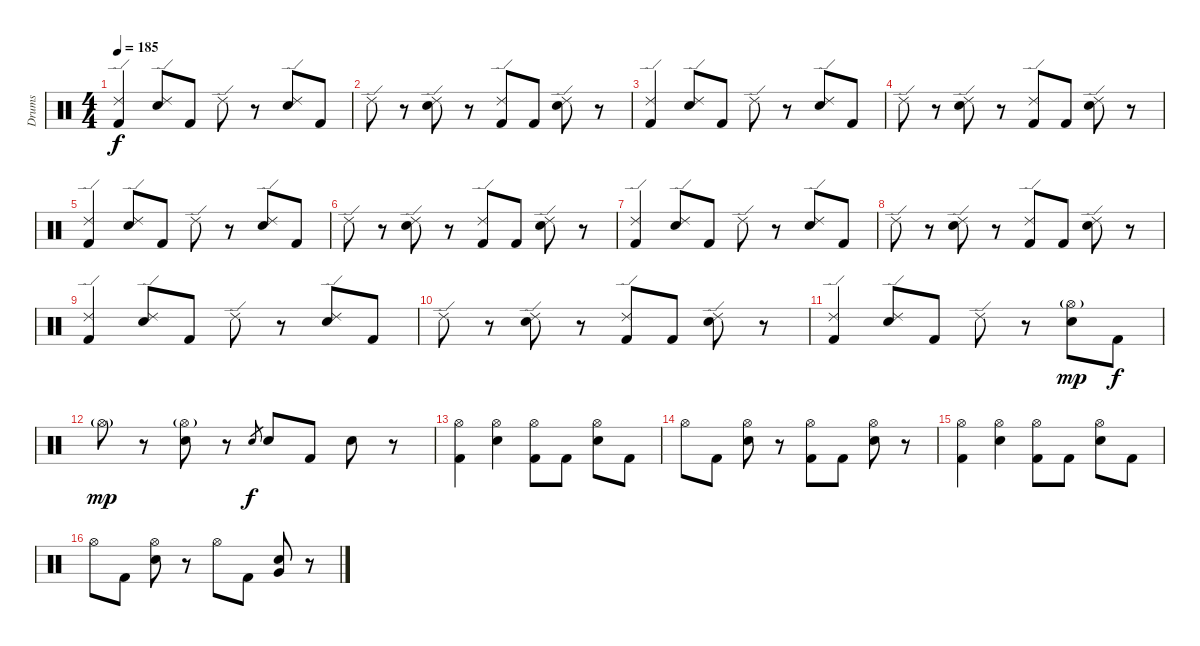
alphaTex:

\track ("Drums" "Drums") {instrument percussion}
\staff {score}
\articulation defaults
\ts (4 4)
\tempo 185
\clef neutral
\ks c
("Ride (edge) 2" "Kick (hit) 2").4{dy f} ("Ride (edge) 2" "Snare (hit) 2").8 "Kick (hit) 2".8 "Ride (edge) 2".8 r.8 ("Ride (edge) 2" "Snare (hit) 2").8 "Kick (hit) 2".8 |
"Ride (edge) 2".8 r.8 ("Ride (edge) 2" "Snare (hit) 2").8 r.8 ("Ride (edge) 2" "Kick (hit) 2").8 "Kick (hit) 2".8 ("Ride (edge) 2" "Snare (hit) 2").8 r.8 |
("Ride (edge) 2" "Kick (hit) 2").4 ("Ride (edge) 2" "Snare (hit) 2").8 "Kick (hit) 2".8 "Ride (edge) 2".8 r.8 ("Ride (edge) 2" "Snare (hit) 2").8 "Kick (hit) 2".8 |
"Ride (edge) 2".8 r.8 ("Ride (edge) 2" "Snare (hit) 2").8 r.8 ("Ride (edge) 2" "Kick (hit) 2").8 "Kick (hit) 2".8 ("Ride (edge) 2" "Snare (hit) 2").8 r.8 |
("Ride (edge) 2" "Kick (hit) 2").4 ("Ride (edge) 2" "Snare (hit) 2").8 "Kick (hit) 2".8 "Ride (edge) 2".8 r.8 ("Ride (edge) 2" "Snare (hit) 2").8 "Kick (hit) 2".8 |
"Ride (edge) 2".8 r.8 ("Ride (edge) 2" "Snare (hit) 2").8 r.8 ("Ride (edge) 2" "Kick (hit) 2").8 "Kick (hit) 2".8 ("Ride (edge) 2" "Snare (hit) 2").8 r.8 |
("Ride (edge) 2" "Kick (hit) 2").4 ("Ride (edge) 2" "Snare (hit) 2").8 "Kick (hit) 2".8 "Ride (edge) 2".8 r.8 ("Ride (edge) 2" "Snare (hit) 2").8 "Kick (hit) 2".8 |
"Ride (edge) 2".8 r.8 ("Ride (edge) 2" "Snare (hit) 2").8 r.8 ("Ride (edge) 2" "Kick (hit) 2").8 "Kick (hit) 2".8 ("Ride (edge) 2" "Snare (hit) 2").8 r.8 |
("Ride (edge) 2" "Kick (hit) 2").4 ("Ride (edge) 2" "Snare (hit) 2").8 "Kick (hit) 2".8 "Ride (edge) 2".8 r.8 ("Ride (edge) 2" "Snare (hit) 2").8 "Kick (hit) 2".8 |
"Ride (edge) 2".8 r.8 ("Ride (edge) 2" "Snare (hit) 2").8 r.8 ("Ride (edge) 2" "Kick (hit) 2").8 "Kick (hit) 2".8 ("Ride (edge) 2" "Snare (hit) 2").8 r.8 |
("Ride (edge) 2" "Kick (hit) 2").4 ("Ride (edge) 2" "Snare (hit) 2").8 "Kick (hit) 2".8 "Ride (edge) 2".8 r.8 ("Hi-Hat (open)"{g} "Snare (hit) 2").8{dy mp} "Kick (hit) 2".8{dy f} |
"Hi-Hat (open)"{g}.8{dy mp} r.8 ("Hi-Hat (open)"{g} "Snare (hit) 2").8 r.8 "Snare (hit) 2".8{gr dy f} "Snare (hit) 2".8 "Kick (hit) 2".8 "Snare (hit) 2".8 r.8 |
("Hi-Hat (open)" "Kick (hit) 2").4 ("Hi-Hat (open)" "Snare (hit) 2").4 ("Hi-Hat (open)" "Kick (hit) 2").8 "Kick (hit) 2".8 ("Hi-Hat (open)" "Snare (hit) 2").8 "Kick (hit) 2".8 |
"Hi-Hat (open)".8 "Kick (hit) 2".8 ("Hi-Hat (open)" "Snare (hit) 2").8 r.8 ("Hi-Hat (open)" "Kick (hit) 2").8 "Kick (hit) 2".8 ("Hi-Hat (open)" "Snare (hit) 2").8 r.8 |
("Hi-Hat (open)" "Kick (hit) 2").4 ("Hi-Hat (open)" "Snare (hit) 2").4 ("Hi-Hat (open)" "Kick (hit) 2").8 "Kick (hit) 2".8 ("Hi-Hat (open)" "Snare (hit) 2").8 "Kick (hit) 2".8 |
"Hi-Hat (open)".8 "Kick (hit) 2".8 ("Hi-Hat (open)" "Snare (hit) 2").8 r.8 "Hi-Hat (open)".8 "Kick (hit) 2".8 ("Very Low Tom (hit)" "Snare (hit) 2").8 r.8
